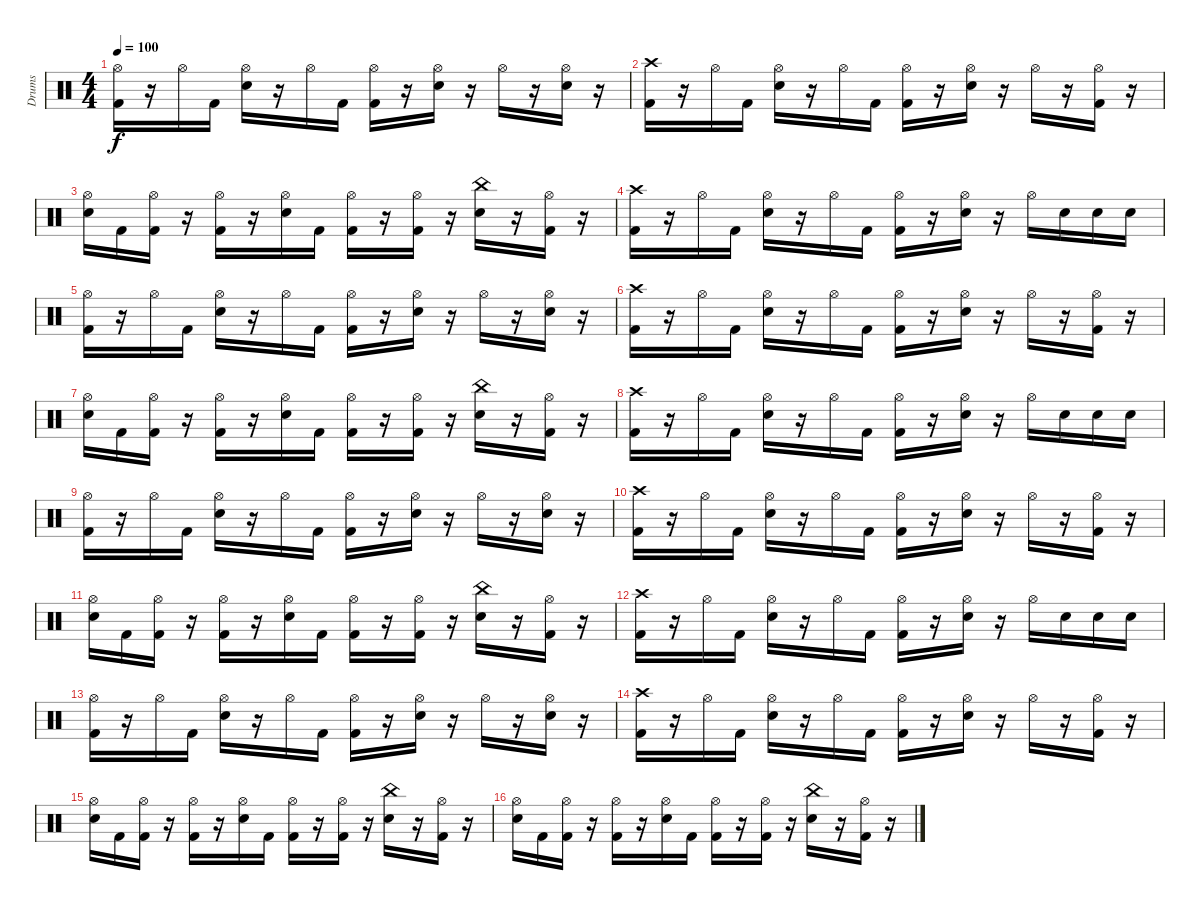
\track ("Drums" "Drums") {instrument percussion}
\staff {score}
\articulation defaults
\ts (4 4)
\tempo 100
\clef neutral
\ks c
("Hi-Hat (open)" "Kick (hit) 2").16{dy f} r.16 "Hi-Hat (open)".16 "Kick (hit) 2".16 ("Hi-Hat (open)" "Electric Snare (hit)").16 r.16 "Hi-Hat (open)".16 "Kick (hit) 2".16 ("Hi-Hat (open)" "Kick (hit) 2").16 r.16 ("Hi-Hat (open)" "Electric Snare (hit)").16 r.16 "Hi-Hat (open)".16 r.16 ("Hi-Hat (open)" "Electric Snare (hit)").16 r.16 |
("Crash high (hit)" "Kick (hit) 2").16 r.16 "Hi-Hat (open)".16 "Kick (hit) 2".16 ("Hi-Hat (open)" "Electric Snare (hit)").16 r.16 "Hi-Hat (open)".16 "Kick (hit) 2".16 ("Hi-Hat (open)" "Kick (hit) 2").16 r.16 ("Hi-Hat (open)" "Electric Snare (hit)").16 r.16 "Hi-Hat (open)".16 r.16 ("Hi-Hat (open)" "Kick (hit) 2").16 r.16 |
("Hi-Hat (open)" "Electric Snare (hit)").16 "Kick (hit) 2".16 ("Hi-Hat (open)" "Kick (hit) 2").16 r.16 ("Hi-Hat (open)" "Kick (hit) 2").16 r.16 ("Hi-Hat (open)" "Electric Snare (hit)").16 "Kick (hit) 2".16 ("Hi-Hat (open)" "Kick (hit) 2").16 r.16 ("Hi-Hat (open)" "Kick (hit) 2").16 r.16 ("China (hit)" "Electric Snare (hit)").16 r.16 ("Hi-Hat (open)" "Kick (hit) 2").16 r.16 |
("Crash high (hit)" "Kick (hit) 2").16 r.16 "Hi-Hat (open)".16 "Kick (hit) 2".16 ("Hi-Hat (open)" "Electric Snare (hit)").16 r.16 "Hi-Hat (open)".16 "Kick (hit) 2".16 ("Hi-Hat (open)" "Kick (hit) 2").16 r.16 ("Hi-Hat (open)" "Electric Snare (hit)").16 r.16 "Hi-Hat (open)".16 "Electric Snare (hit)".16 "Electric Snare (hit)".16 "Electric Snare (hit)".16 |
("Hi-Hat (open)" "Kick (hit) 2").16 r.16 "Hi-Hat (open)".16 "Kick (hit) 2".16 ("Hi-Hat (open)" "Electric Snare (hit)").16 r.16 "Hi-Hat (open)".16 "Kick (hit) 2".16 ("Hi-Hat (open)" "Kick (hit) 2").16 r.16 ("Hi-Hat (open)" "Electric Snare (hit)").16 r.16 "Hi-Hat (open)".16 r.16 ("Hi-Hat (open)" "Electric Snare (hit)").16 r.16 |
("Crash high (hit)" "Kick (hit) 2").16 r.16 "Hi-Hat (open)".16 "Kick (hit) 2".16 ("Hi-Hat (open)" "Electric Snare (hit)").16 r.16 "Hi-Hat (open)".16 "Kick (hit) 2".16 ("Hi-Hat (open)" "Kick (hit) 2").16 r.16 ("Hi-Hat (open)" "Electric Snare (hit)").16 r.16 "Hi-Hat (open)".16 r.16 ("Hi-Hat (open)" "Kick (hit) 2").16 r.16 |
("Hi-Hat (open)" "Electric Snare (hit)").16 "Kick (hit) 2".16 ("Hi-Hat (open)" "Kick (hit) 2").16 r.16 ("Hi-Hat (open)" "Kick (hit) 2").16 r.16 ("Hi-Hat (open)" "Electric Snare (hit)").16 "Kick (hit) 2".16 ("Hi-Hat (open)" "Kick (hit) 2").16 r.16 ("Hi-Hat (open)" "Kick (hit) 2").16 r.16 ("China (hit)" "Electric Snare (hit)").16 r.16 ("Hi-Hat (open)" "Kick (hit) 2").16 r.16 |
("Crash high (hit)" "Kick (hit) 2").16 r.16 "Hi-Hat (open)".16 "Kick (hit) 2".16 ("Hi-Hat (open)" "Electric Snare (hit)").16 r.16 "Hi-Hat (open)".16 "Kick (hit) 2".16 ("Hi-Hat (open)" "Kick (hit) 2").16 r.16 ("Hi-Hat (open)" "Electric Snare (hit)").16 r.16 "Hi-Hat (open)".16 "Electric Snare (hit)".16 "Electric Snare (hit)".16 "Electric Snare (hit)".16 |
("Hi-Hat (open)" "Kick (hit) 2").16 r.16 "Hi-Hat (open)".16 "Kick (hit) 2".16 ("Hi-Hat (open)" "Electric Snare (hit)").16 r.16 "Hi-Hat (open)".16 "Kick (hit) 2".16 ("Hi-Hat (open)" "Kick (hit) 2").16 r.16 ("Hi-Hat (open)" "Electric Snare (hit)").16 r.16 "Hi-Hat (open)".16 r.16 ("Hi-Hat (open)" "Electric Snare (hit)").16 r.16 |
("Crash high (hit)" "Kick (hit) 2").16 r.16 "Hi-Hat (open)".16 "Kick (hit) 2".16 ("Hi-Hat (open)" "Electric Snare (hit)").16 r.16 "Hi-Hat (open)".16 "Kick (hit) 2".16 ("Hi-Hat (open)" "Kick (hit) 2").16 r.16 ("Hi-Hat (open)" "Electric Snare (hit)").16 r.16 "Hi-Hat (open)".16 r.16 ("Hi-Hat (open)" "Kick (hit) 2").16 r.16 |
("Hi-Hat (open)" "Electric Snare (hit)").16 "Kick (hit) 2".16 ("Hi-Hat (open)" "Kick (hit) 2").16 r.16 ("Hi-Hat (open)" "Kick (hit) 2").16 r.16 ("Hi-Hat (open)" "Electric Snare (hit)").16 "Kick (hit) 2".16 ("Hi-Hat (open)" "Kick (hit) 2").16 r.16 ("Hi-Hat (open)" "Kick (hit) 2").16 r.16 ("China (hit)" "Electric Snare (hit)").16 r.16 ("Hi-Hat (open)" "Kick (hit) 2").16 r.16 |
("Crash high (hit)" "Kick (hit) 2").16 r.16 "Hi-Hat (open)".16 "Kick (hit) 2".16 ("Hi-Hat (open)" "Electric Snare (hit)").16 r.16 "Hi-Hat (open)".16 "Kick (hit) 2".16 ("Hi-Hat (open)" "Kick (hit) 2").16 r.16 ("Hi-Hat (open)" "Electric Snare (hit)").16 r.16 "Hi-Hat (open)".16 "Electric Snare (hit)".16 "Electric Snare (hit)".16 "Electric Snare (hit)".16 |
("Hi-Hat (open)" "Kick (hit) 2").16 r.16 "Hi-Hat (open)".16 "Kick (hit) 2".16 ("Hi-Hat (open)" "Electric Snare (hit)").16 r.16 "Hi-Hat (open)".16 "Kick (hit) 2".16 ("Hi-Hat (open)" "Kick (hit) 2").16 r.16 ("Hi-Hat (open)" "Electric Snare (hit)").16 r.16 "Hi-Hat (open)".16 r.16 ("Hi-Hat (open)" "Electric Snare (hit)").16 r.16 |
("Crash high (hit)" "Kick (hit) 2").16 r.16 "Hi-Hat (open)".16 "Kick (hit) 2".16 ("Hi-Hat (open)" "Electric Snare (hit)").16 r.16 "Hi-Hat (open)".16 "Kick (hit) 2".16 ("Hi-Hat (open)" "Kick (hit) 2").16 r.16 ("Hi-Hat (open)" "Electric Snare (hit)").16 r.16 "Hi-Hat (open)".16 r.16 ("Hi-Hat (open)" "Kick (hit) 2").16 r.16 |
("Hi-Hat (open)" "Electric Snare (hit)").16 "Kick (hit) 2".16 ("Hi-Hat (open)" "Kick (hit) 2").16 r.16 ("Hi-Hat (open)" "Kick (hit) 2").16 r.16 ("Hi-Hat (open)" "Electric Snare (hit)").16 "Kick (hit) 2".16 ("Hi-Hat (open)" "Kick (hit) 2").16 r.16 ("Hi-Hat (open)" "Kick (hit) 2").16 r.16 ("China (hit)" "Electric Snare (hit)").16 r.16 ("Hi-Hat (open)" "Kick (hit) 2").16 r.16 |
("Hi-Hat (open)" "Electric Snare (hit)").16 "Kick (hit) 2".16 ("Hi-Hat (open)" "Kick (hit) 2").16 r.16 ("Hi-Hat (open)" "Kick (hit) 2").16 r.16 ("Hi-Hat (open)" "Electric Snare (hit)").16 "Kick (hit) 2".16 ("Hi-Hat (open)" "Kick (hit) 2").16 r.16 ("Hi-Hat (open)" "Kick (hit) 2").16 r.16 ("China (hit)" "Electric Snare (hit)").16 r.16 ("Hi-Hat (open)" "Kick (hit) 2").16 r.16
